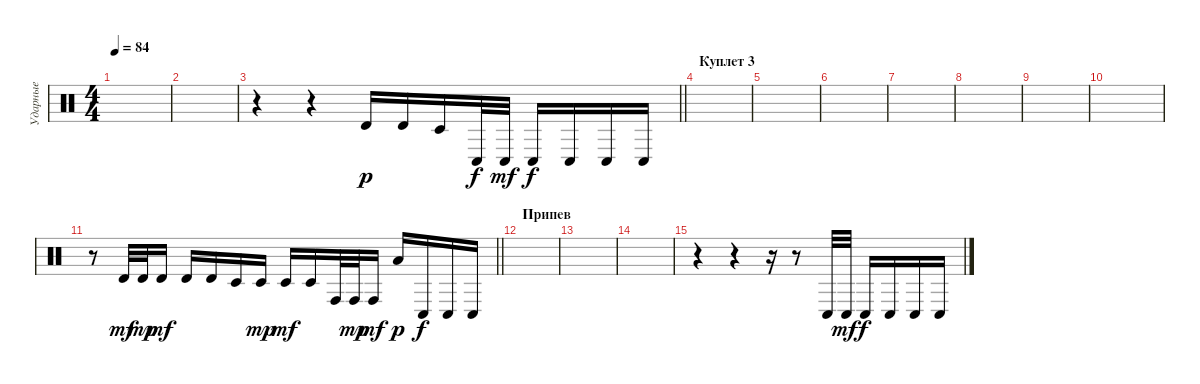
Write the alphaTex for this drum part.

\track ("Ударные" "Ударные") {instrument percussion}
\staff {score}
\articulation defaults
\ts (4 4)
\tempo 84
\clef neutral
\ks c
|
|
\barLineRight lightlight
r.4 r.4 "Timbale high (hit)".16{dy p} "Timbale high (hit)".16 "Timbale low (hit)".16 "Conga low (hit)".32{dy f} "Conga low (hit)".32{dy mf} "Conga low (hit)".16{dy f} "Conga low (hit)".16 "Conga low (hit)".16 "Conga low (hit)".16 |
\section ("" "Куплет 3")
|
|
|
|
|
|
|
\barLineRight lightlight
r.8 "Timbale high (hit)".32{dy mf} "Timbale high (hit)".32{dy mp} "Timbale high (hit)".16{dy mf} "Timbale high (hit)".16 "Timbale high (hit)".16 "Timbale low (hit)".16 "Timbale low (hit)".16{dy mp} "Timbale low (hit)".16{dy mf} "Timbale low (hit)".16 "Conga high (hit)".32 "Conga high (hit)".32{dy mp} "Conga high (hit)".16{dy mf} "Low Tom (hit)".16{dy p} "Conga low (hit)".16{dy f} "Conga low (hit)".16 "Conga low (hit)".16 |
\section ("" "Припев")
|
|
|
r.4 r.4 r.16 r.8 "Conga low (hit)".32 "Conga low (hit)".32{dy mf} "Conga low (hit)".16{dy f} "Conga low (hit)".16 "Conga low (hit)".16 "Conga low (hit)".16
